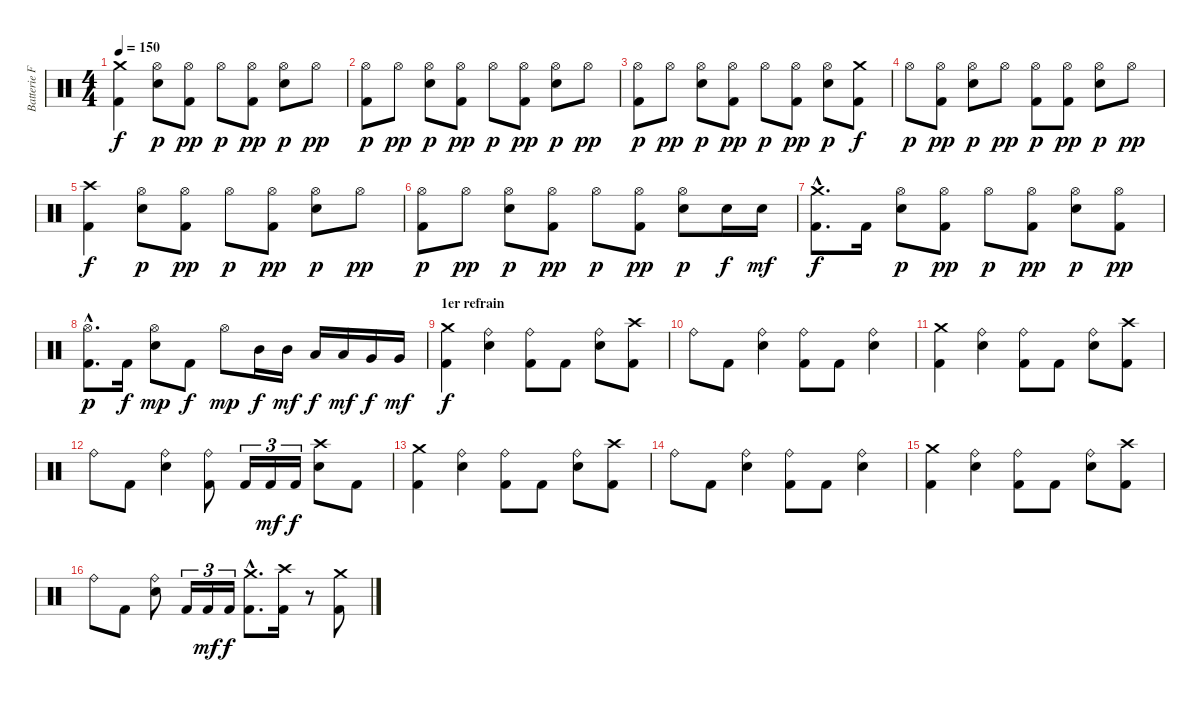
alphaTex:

\track ("Batterie Franck" "Batterie F") {instrument percussion}
\staff {score}
\articulation defaults
\ts (4 4)
\tempo 150
\clef neutral
\ks c
("Crash medium (hit)" "Kick (hit) 2").4{dy f} ("Hi-Hat (open)" "Snare (hit) 2").8{dy p} ("Hi-Hat (open)" "Kick (hit) 2").8{dy pp} "Hi-Hat (open)".8{dy p} ("Hi-Hat (open)" "Kick (hit) 2").8{dy pp} ("Hi-Hat (open)" "Snare (hit) 2").8{dy p} "Hi-Hat (open)".8{dy pp} |
("Hi-Hat (open)" "Kick (hit) 2").8{dy p} "Hi-Hat (open)".8{dy pp} ("Hi-Hat (open)" "Snare (hit) 2").8{dy p} ("Hi-Hat (open)" "Kick (hit) 2").8{dy pp} "Hi-Hat (open)".8{dy p} ("Hi-Hat (open)" "Kick (hit) 2").8{dy pp} ("Hi-Hat (open)" "Snare (hit) 2").8{dy p} "Hi-Hat (open)".8{dy pp} |
("Hi-Hat (open)" "Kick (hit) 2").8{dy p} "Hi-Hat (open)".8{dy pp} ("Hi-Hat (open)" "Snare (hit) 2").8{dy p} ("Hi-Hat (open)" "Kick (hit) 2").8{dy pp} "Hi-Hat (open)".8{dy p} ("Hi-Hat (open)" "Kick (hit) 2").8{dy pp} ("Hi-Hat (open)" "Snare (hit) 2").8{dy p} ("Crash medium (hit)" "Kick (hit) 2").8{dy f} |
"Hi-Hat (open)".8{dy p} ("Hi-Hat (open)" "Kick (hit) 2").8{dy pp} ("Hi-Hat (open)" "Snare (hit) 2").8{dy p} "Hi-Hat (open)".8{dy pp} ("Hi-Hat (open)" "Kick (hit) 2").8{dy p} ("Hi-Hat (open)" "Kick (hit) 2").8{dy pp} ("Hi-Hat (open)" "Snare (hit) 2").8{dy p} "Hi-Hat (open)".8{dy pp} |
("Crash high (hit)" "Kick (hit) 2").4{dy f} ("Hi-Hat (open)" "Snare (hit) 2").8{dy p} ("Hi-Hat (open)" "Kick (hit) 2").8{dy pp} "Hi-Hat (open)".8{dy p} ("Hi-Hat (open)" "Kick (hit) 2").8{dy pp} ("Hi-Hat (open)" "Snare (hit) 2").8{dy p} "Hi-Hat (open)".8{dy pp} |
("Hi-Hat (open)" "Kick (hit) 2").8{dy p} "Hi-Hat (open)".8{dy pp} ("Hi-Hat (open)" "Snare (hit) 2").8{dy p} ("Hi-Hat (open)" "Kick (hit) 2").8{dy pp} "Hi-Hat (open)".8{dy p} ("Hi-Hat (open)" "Kick (hit) 2").8{dy pp} ("Hi-Hat (open)" "Snare (hit) 2").8{dy p} "Snare (hit) 2".16{dy f} "Snare (hit) 2".16{dy mf} |
("Crash medium (hit)"{hac} "Kick (hit) 2"{hac}).8{d dy f} "Kick (hit) 2".16 ("Hi-Hat (open)" "Snare (hit) 2").8{dy p} ("Hi-Hat (open)" "Kick (hit) 2").8{dy pp} "Hi-Hat (open)".8{dy p} ("Hi-Hat (open)" "Kick (hit) 2").8{dy pp} ("Hi-Hat (open)" "Snare (hit) 2").8{dy p} ("Hi-Hat (open)" "Kick (hit) 2").8{dy pp} |
("Hi-Hat (open)" "Kick (hit) 2"{hac}).8{d dy p} "Kick (hit) 2".16{dy f} ("Hi-Hat (open)" "Snare (hit) 2").8{dy mp} "Kick (hit) 2".8{dy f} "Hi-Hat (open)".8{dy mp} "Mid Tom (hit)".16{dy f} "Mid Tom (hit)".16{dy mf} "Low Tom (hit)".16{dy f} "Low Tom (hit)".16{dy mf} "Very Low Tom (hit)".16{dy f} "Very Low Tom (hit)".16{dy mf} |
\section ("" "1er refrain")
("Crash medium (hit)" "Kick (hit) 2").4{dy f} ("Ride (bell)" "Snare (hit) 2").4 ("Ride (bell)" "Kick (hit) 2").8 "Kick (hit) 2".8 ("Ride (bell)" "Snare (hit) 2").8 ("Crash high (hit)" "Kick (hit) 2").8 |
"Ride (bell)".8 "Kick (hit) 2".8 ("Ride (bell)" "Snare (hit) 2").4 ("Ride (bell)" "Kick (hit) 2").8 "Kick (hit) 2".8 ("Ride (bell)" "Snare (hit) 2").4 |
("Crash medium (hit)" "Kick (hit) 2").4 ("Ride (bell)" "Snare (hit) 2").4 ("Ride (bell)" "Kick (hit) 2").8 "Kick (hit) 2".8 ("Ride (bell)" "Snare (hit) 2").8 ("Crash high (hit)" "Kick (hit) 2").8 |
"Ride (bell)".8 "Kick (hit) 2".8 ("Ride (bell)" "Snare (hit) 2").4 ("Ride (bell)" "Kick (hit) 2").8 "Kick (hit) 2".16{tu (3 2)} "Kick (hit) 2".16{tu (3 2) dy mf} "Kick (hit) 2".16{tu (3 2) dy f} ("Crash high (hit)" "Snare (hit) 2").8 "Kick (hit) 2".8 |
("Crash medium (hit)" "Kick (hit) 2").4 ("Ride (bell)" "Snare (hit) 2").4 ("Ride (bell)" "Kick (hit) 2").8 "Kick (hit) 2".8 ("Ride (bell)" "Snare (hit) 2").8 ("Crash high (hit)" "Kick (hit) 2").8 |
"Ride (bell)".8 "Kick (hit) 2".8 ("Ride (bell)" "Snare (hit) 2").4 ("Ride (bell)" "Kick (hit) 2").8 "Kick (hit) 2".8 ("Ride (bell)" "Snare (hit) 2").4 |
("Crash medium (hit)" "Kick (hit) 2").4 ("Ride (bell)" "Snare (hit) 2").4 ("Ride (bell)" "Kick (hit) 2").8 "Kick (hit) 2".8 ("Ride (bell)" "Snare (hit) 2").8 ("Crash high (hit)" "Kick (hit) 2").8 |
"Ride (bell)".8 "Kick (hit) 2".8 ("Ride (bell)" "Snare (hit) 2").8 "Kick (hit) 2".16{tu (3 2)} "Kick (hit) 2".16{tu (3 2) dy mf} "Kick (hit) 2".16{tu (3 2) dy f} ("Crash medium (hit)"{hac} "Kick (hit) 2"{hac}).8{d} ("Crash high (hit)" "Kick (hit) 2").16 r.8 ("Crash medium (hit)" "Kick (hit) 2").8
